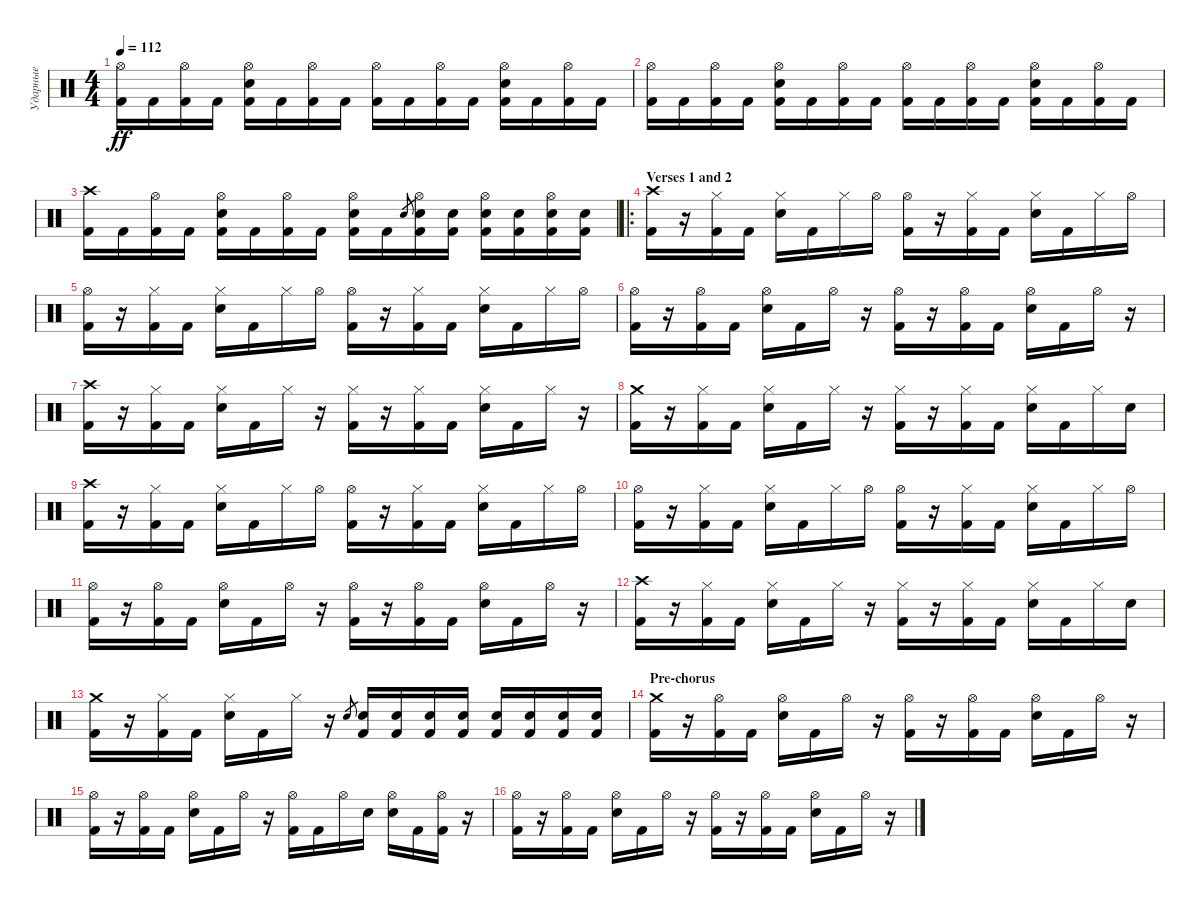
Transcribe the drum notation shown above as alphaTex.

\track ("Ударные" "Ударные") {instrument percussion}
\staff {score}
\articulation defaults
\ts (4 4)
\tempo 112
\clef neutral
\ks c
("Hi-Hat (open)" "Kick (hit) 2").16{dy ff} "Kick (hit) 2".16 ("Hi-Hat (open)" "Kick (hit) 2").16 "Kick (hit) 2".16 ("Hi-Hat (open)" "Snare (hit) 2" "Kick (hit) 2").16 "Kick (hit) 2".16 ("Hi-Hat (open)" "Kick (hit) 2").16 "Kick (hit) 2".16 ("Hi-Hat (open)" "Kick (hit) 2").16 "Kick (hit) 2".16 ("Hi-Hat (open)" "Kick (hit) 2").16 "Kick (hit) 2".16 ("Hi-Hat (open)" "Snare (hit) 2" "Kick (hit) 2").16 "Kick (hit) 2".16 ("Hi-Hat (open)" "Kick (hit) 2").16 "Kick (hit) 2".16 |
("Hi-Hat (open)" "Kick (hit) 2").16 "Kick (hit) 2".16 ("Hi-Hat (open)" "Kick (hit) 2").16 "Kick (hit) 2".16 ("Hi-Hat (open)" "Snare (hit) 2" "Kick (hit) 2").16 "Kick (hit) 2".16 ("Hi-Hat (open)" "Kick (hit) 2").16 "Kick (hit) 2".16 ("Hi-Hat (open)" "Kick (hit) 2").16 "Kick (hit) 2".16 ("Hi-Hat (open)" "Kick (hit) 2").16 "Kick (hit) 2".16 ("Hi-Hat (open)" "Snare (hit) 2" "Kick (hit) 2").16 "Kick (hit) 2".16 ("Hi-Hat (open)" "Kick (hit) 2").16 "Kick (hit) 2".16 |
("Crash high (hit)" "Kick (hit) 2").16 "Kick (hit) 2".16 ("Hi-Hat (open)" "Kick (hit) 2").16 "Kick (hit) 2".16 ("Hi-Hat (open)" "Snare (hit) 2" "Kick (hit) 2").16 "Kick (hit) 2".16 ("Hi-Hat (open)" "Kick (hit) 2").16 "Kick (hit) 2".16 ("Hi-Hat (open)" "Snare (hit) 2" "Kick (hit) 2").16 "Kick (hit) 2".16 "Snare (hit) 2".8{gr} ("Hi-Hat (open)" "Snare (hit) 2" "Kick (hit) 2").16 ("Snare (hit) 2" "Kick (hit) 2").16 ("Hi-Hat (open)" "Snare (hit) 2" "Kick (hit) 2").16 ("Snare (hit) 2" "Kick (hit) 2").16 ("Hi-Hat (open)" "Snare (hit) 2" "Kick (hit) 2").16 ("Snare (hit) 2" "Kick (hit) 2").16 |
\ro
\section ("" "Verses 1 and 2")
("Crash high (hit)" "Kick (hit) 2").16 r.16 ("Hi-Hat (closed)" "Kick (hit) 2").16 "Kick (hit) 2".16 ("Hi-Hat (closed)" "Snare (hit) 2").16 "Kick (hit) 2".16 "Hi-Hat (closed)".16 "Hi-Hat (open)".16 ("Hi-Hat (open)" "Kick (hit) 2").16 r.16 ("Hi-Hat (closed)" "Kick (hit) 2").16 "Kick (hit) 2".16 ("Hi-Hat (closed)" "Snare (hit) 2").16 "Kick (hit) 2".16 "Hi-Hat (closed)".16 "Hi-Hat (open)".16 |
("Hi-Hat (open)" "Kick (hit) 2").16 r.16 ("Hi-Hat (closed)" "Kick (hit) 2").16 "Kick (hit) 2".16 ("Hi-Hat (closed)" "Snare (hit) 2").16 "Kick (hit) 2".16 "Hi-Hat (closed)".16 "Hi-Hat (open)".16 ("Hi-Hat (open)" "Kick (hit) 2").16 r.16 ("Hi-Hat (closed)" "Kick (hit) 2").16 "Kick (hit) 2".16 ("Hi-Hat (closed)" "Snare (hit) 2").16 "Kick (hit) 2".16 "Hi-Hat (closed)".16 "Hi-Hat (open)".16 |
("Hi-Hat (open)" "Kick (hit) 2").16 r.16 ("Hi-Hat (open)" "Kick (hit) 2").16 "Kick (hit) 2".16 ("Hi-Hat (open)" "Snare (hit) 2").16 "Kick (hit) 2".16 "Hi-Hat (open)".16 r.16 ("Hi-Hat (open)" "Kick (hit) 2").16 r.16 ("Hi-Hat (open)" "Kick (hit) 2").16 "Kick (hit) 2".16 ("Hi-Hat (open)" "Snare (hit) 2").16 "Kick (hit) 2".16 "Hi-Hat (open)".16 r.16 |
("Crash high (hit)" "Kick (hit) 2").16 r.16 ("Hi-Hat (closed)" "Kick (hit) 2").16 "Kick (hit) 2".16 ("Hi-Hat (closed)" "Snare (hit) 2").16 "Kick (hit) 2".16 "Hi-Hat (closed)".16 r.16 ("Hi-Hat (closed)" "Kick (hit) 2").16 r.16 ("Hi-Hat (closed)" "Kick (hit) 2").16 "Kick (hit) 2".16 ("Hi-Hat (closed)" "Snare (hit) 2").16 "Kick (hit) 2".16 "Hi-Hat (closed)".16 r.16 |
("Crash medium (hit)" "Kick (hit) 2").16 r.16 ("Hi-Hat (closed)" "Kick (hit) 2").16 "Kick (hit) 2".16 ("Hi-Hat (closed)" "Snare (hit) 2").16 "Kick (hit) 2".16 "Hi-Hat (closed)".16 r.16 ("Hi-Hat (closed)" "Kick (hit) 2").16 r.16 ("Hi-Hat (closed)" "Kick (hit) 2").16 "Kick (hit) 2".16 ("Hi-Hat (closed)" "Snare (hit) 2").16 "Kick (hit) 2".16 "Hi-Hat (closed)".16 "Snare (hit) 2".16 |
("Crash high (hit)" "Kick (hit) 2").16 r.16 ("Hi-Hat (closed)" "Kick (hit) 2").16 "Kick (hit) 2".16 ("Hi-Hat (closed)" "Snare (hit) 2").16 "Kick (hit) 2".16 "Hi-Hat (closed)".16 "Hi-Hat (open)".16 ("Hi-Hat (open)" "Kick (hit) 2").16 r.16 ("Hi-Hat (closed)" "Kick (hit) 2").16 "Kick (hit) 2".16 ("Hi-Hat (closed)" "Snare (hit) 2").16 "Kick (hit) 2".16 "Hi-Hat (closed)".16 "Hi-Hat (open)".16 |
("Hi-Hat (open)" "Kick (hit) 2").16 r.16 ("Hi-Hat (closed)" "Kick (hit) 2").16 "Kick (hit) 2".16 ("Hi-Hat (closed)" "Snare (hit) 2").16 "Kick (hit) 2".16 "Hi-Hat (closed)".16 "Hi-Hat (open)".16 ("Hi-Hat (open)" "Kick (hit) 2").16 r.16 ("Hi-Hat (closed)" "Kick (hit) 2").16 "Kick (hit) 2".16 ("Hi-Hat (closed)" "Snare (hit) 2").16 "Kick (hit) 2".16 "Hi-Hat (closed)".16 "Hi-Hat (open)".16 |
("Hi-Hat (open)" "Kick (hit) 2").16 r.16 ("Hi-Hat (open)" "Kick (hit) 2").16 "Kick (hit) 2".16 ("Hi-Hat (open)" "Snare (hit) 2").16 "Kick (hit) 2".16 "Hi-Hat (open)".16 r.16 ("Hi-Hat (open)" "Kick (hit) 2").16 r.16 ("Hi-Hat (open)" "Kick (hit) 2").16 "Kick (hit) 2".16 ("Hi-Hat (open)" "Snare (hit) 2").16 "Kick (hit) 2".16 "Hi-Hat (open)".16 r.16 |
("Crash high (hit)" "Kick (hit) 2").16 r.16 ("Hi-Hat (closed)" "Kick (hit) 2").16 "Kick (hit) 2".16 ("Hi-Hat (closed)" "Snare (hit) 2").16 "Kick (hit) 2".16 "Hi-Hat (closed)".16 r.16 ("Hi-Hat (closed)" "Kick (hit) 2").16 r.16 ("Hi-Hat (closed)" "Kick (hit) 2").16 "Kick (hit) 2".16 ("Hi-Hat (closed)" "Snare (hit) 2").16 "Kick (hit) 2".16 "Hi-Hat (closed)".16 "Snare (hit) 2".16 |
("Crash medium (hit)" "Kick (hit) 2").16 r.16 ("Hi-Hat (closed)" "Kick (hit) 2").16 "Kick (hit) 2".16 ("Hi-Hat (closed)" "Snare (hit) 2").16 "Kick (hit) 2".16 "Hi-Hat (closed)".16 r.16 "Snare (hit) 2".8{gr} ("Snare (hit) 2" "Kick (hit) 2").16 ("Snare (hit) 2" "Kick (hit) 2").16 ("Snare (hit) 2" "Kick (hit) 2").16 ("Snare (hit) 2" "Kick (hit) 2").16 ("Snare (hit) 2" "Kick (hit) 2").16 ("Snare (hit) 2" "Kick (hit) 2").16 ("Snare (hit) 2" "Kick (hit) 2").16 ("Snare (hit) 2" "Kick (hit) 2").16 |
\section ("" "Pre-chorus")
("Crash medium (hit)" "Kick (hit) 2").16 r.16 ("Hi-Hat (open)" "Kick (hit) 2").16 "Kick (hit) 2".16 ("Hi-Hat (open)" "Snare (hit) 2").16 "Kick (hit) 2".16 "Hi-Hat (open)".16 r.16 ("Hi-Hat (open)" "Kick (hit) 2").16 r.16 ("Hi-Hat (open)" "Kick (hit) 2").16 "Kick (hit) 2".16 ("Hi-Hat (open)" "Snare (hit) 2").16 "Kick (hit) 2".16 "Hi-Hat (open)".16 r.16 |
("Hi-Hat (open)" "Kick (hit) 2").16 r.16 ("Hi-Hat (open)" "Kick (hit) 2").16 "Kick (hit) 2".16 ("Hi-Hat (open)" "Snare (hit) 2").16 "Kick (hit) 2".16 "Hi-Hat (open)".16 r.16 ("Hi-Hat (open)" "Kick (hit) 2").16 "Kick (hit) 2".16 "Hi-Hat (open)".16 "Snare (hit) 2".16 ("Hi-Hat (open)" "Snare (hit) 2").16 "Kick (hit) 2".16 ("Hi-Hat (open)" "Kick (hit) 2").16 r.16 |
("Hi-Hat (open)" "Kick (hit) 2").16 r.16 ("Hi-Hat (open)" "Kick (hit) 2").16 "Kick (hit) 2".16 ("Hi-Hat (open)" "Snare (hit) 2").16 "Kick (hit) 2".16 "Hi-Hat (open)".16 r.16 ("Hi-Hat (open)" "Kick (hit) 2").16 r.16 ("Hi-Hat (open)" "Kick (hit) 2").16 "Kick (hit) 2".16 ("Hi-Hat (open)" "Snare (hit) 2").16 "Kick (hit) 2".16 "Hi-Hat (open)".16 r.16
